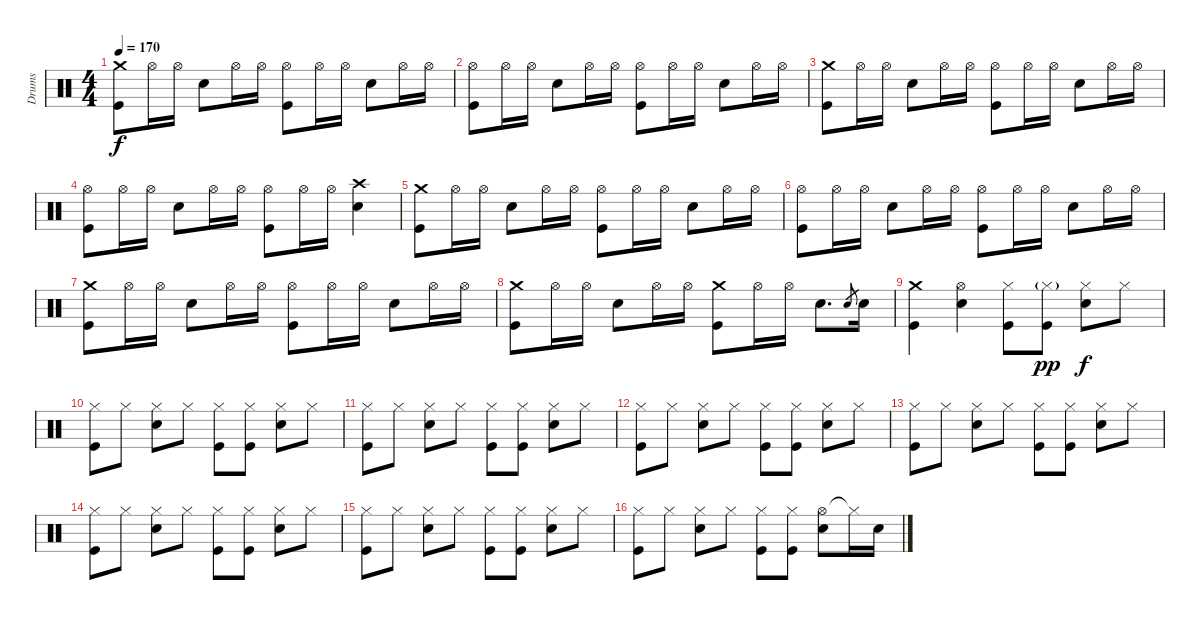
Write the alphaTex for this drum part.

\track ("Drums" "Drums") {instrument percussion}
\staff {score}
\articulation defaults
\ts (4 4)
\tempo 170
\clef neutral
\ks c
("Crash medium (hit)" "Kick (hit)").8{dy f} "Hi-Hat (open)".16 "Hi-Hat (open)".16 "Snare (hit) 2".8 "Hi-Hat (open)".16 "Hi-Hat (open)".16 ("Hi-Hat (open)" "Kick (hit)").8 "Hi-Hat (open)".16 "Hi-Hat (open)".16 "Snare (hit) 2".8 "Hi-Hat (open)".16 "Hi-Hat (open)".16 |
("Hi-Hat (open)" "Kick (hit)").8 "Hi-Hat (open)".16 "Hi-Hat (open)".16 "Snare (hit) 2".8 "Hi-Hat (open)".16 "Hi-Hat (open)".16 ("Hi-Hat (open)" "Kick (hit)").8 "Hi-Hat (open)".16 "Hi-Hat (open)".16 "Snare (hit) 2".8 "Hi-Hat (open)".16 "Hi-Hat (open)".16 |
("Crash medium (hit)" "Kick (hit)").8 "Hi-Hat (open)".16 "Hi-Hat (open)".16 "Snare (hit) 2".8 "Hi-Hat (open)".16 "Hi-Hat (open)".16 ("Hi-Hat (open)" "Kick (hit)").8 "Hi-Hat (open)".16 "Hi-Hat (open)".16 "Snare (hit) 2".8 "Hi-Hat (open)".16 "Hi-Hat (open)".16 |
("Hi-Hat (open)" "Kick (hit)").8 "Hi-Hat (open)".16 "Hi-Hat (open)".16 "Snare (hit) 2".8 "Hi-Hat (open)".16 "Hi-Hat (open)".16 ("Hi-Hat (open)" "Kick (hit)").8 "Hi-Hat (open)".16 "Hi-Hat (open)".16 ("Crash high (hit)" "Snare (hit) 2").4 |
("Crash medium (hit)" "Kick (hit)").8 "Hi-Hat (open)".16 "Hi-Hat (open)".16 "Snare (hit) 2".8 "Hi-Hat (open)".16 "Hi-Hat (open)".16 ("Hi-Hat (open)" "Kick (hit)").8 "Hi-Hat (open)".16 "Hi-Hat (open)".16 "Snare (hit) 2".8 "Hi-Hat (open)".16 "Hi-Hat (open)".16 |
("Hi-Hat (open)" "Kick (hit)").8 "Hi-Hat (open)".16 "Hi-Hat (open)".16 "Snare (hit) 2".8 "Hi-Hat (open)".16 "Hi-Hat (open)".16 ("Hi-Hat (open)" "Kick (hit)").8 "Hi-Hat (open)".16 "Hi-Hat (open)".16 "Snare (hit) 2".8 "Hi-Hat (open)".16 "Hi-Hat (open)".16 |
("Crash medium (hit)" "Kick (hit)").8 "Hi-Hat (open)".16 "Hi-Hat (open)".16 "Snare (hit) 2".8 "Hi-Hat (open)".16 "Hi-Hat (open)".16 ("Hi-Hat (open)" "Kick (hit)").8 "Hi-Hat (open)".16 "Hi-Hat (open)".16 "Snare (hit) 2".8 "Hi-Hat (open)".16 "Hi-Hat (open)".16 |
("Crash medium (hit)" "Kick (hit)").8 "Hi-Hat (open)".16 "Hi-Hat (open)".16 "Snare (hit) 2".8 "Hi-Hat (open)".16 "Hi-Hat (open)".16 ("Crash medium (hit)" "Kick (hit)").8 "Hi-Hat (open)".16 "Hi-Hat (open)".16 "Snare (hit) 2".8{d} "Snare (hit) 2".8{gr} "Snare (hit) 2".16 |
("Crash medium (hit)" "Kick (hit)").4 ("Hi-Hat (open)" "Snare (hit) 2").4 ("Hi-Hat (closed)" "Kick (hit)").8 ("Hi-Hat (closed)"{g} "Kick (hit)").8{dy pp} ("Hi-Hat (closed)" "Snare (hit) 2").8{dy f} "Hi-Hat (closed)".8 |
("Hi-Hat (closed)" "Kick (hit)").8 "Hi-Hat (closed)".8 ("Hi-Hat (closed)" "Snare (hit) 2").8 "Hi-Hat (closed)".8 ("Hi-Hat (closed)" "Kick (hit)").8 ("Hi-Hat (closed)" "Kick (hit)").8 ("Hi-Hat (closed)" "Snare (hit) 2").8 "Hi-Hat (closed)".8 |
("Hi-Hat (closed)" "Kick (hit)").8 "Hi-Hat (closed)".8 ("Hi-Hat (closed)" "Snare (hit) 2").8 "Hi-Hat (closed)".8 ("Hi-Hat (closed)" "Kick (hit)").8 ("Hi-Hat (closed)" "Kick (hit)").8 ("Hi-Hat (closed)" "Snare (hit) 2").8 "Hi-Hat (closed)".8 |
("Hi-Hat (closed)" "Kick (hit)").8 "Hi-Hat (closed)".8 ("Hi-Hat (closed)" "Snare (hit) 2").8 "Hi-Hat (closed)".8 ("Hi-Hat (closed)" "Kick (hit)").8 ("Hi-Hat (closed)" "Kick (hit)").8 ("Hi-Hat (closed)" "Snare (hit) 2").8 "Hi-Hat (closed)".8 |
("Hi-Hat (closed)" "Kick (hit)").8 "Hi-Hat (closed)".8 ("Hi-Hat (closed)" "Snare (hit) 2").8 "Hi-Hat (closed)".8 ("Hi-Hat (closed)" "Kick (hit)").8 ("Hi-Hat (closed)" "Kick (hit)").8 ("Hi-Hat (closed)" "Snare (hit) 2").8 "Hi-Hat (closed)".8 |
("Hi-Hat (closed)" "Kick (hit)").8 "Hi-Hat (closed)".8 ("Hi-Hat (closed)" "Snare (hit) 2").8 "Hi-Hat (closed)".8 ("Hi-Hat (closed)" "Kick (hit)").8 ("Hi-Hat (closed)" "Kick (hit)").8 ("Hi-Hat (closed)" "Snare (hit) 2").8 "Hi-Hat (closed)".8 |
("Hi-Hat (closed)" "Kick (hit)").8 "Hi-Hat (closed)".8 ("Hi-Hat (closed)" "Snare (hit) 2").8 "Hi-Hat (closed)".8 ("Hi-Hat (closed)" "Kick (hit)").8 ("Hi-Hat (closed)" "Kick (hit)").8 ("Hi-Hat (closed)" "Snare (hit) 2").8 "Hi-Hat (closed)".8 |
("Hi-Hat (closed)" "Kick (hit)").8 "Hi-Hat (closed)".8 ("Hi-Hat (closed)" "Snare (hit) 2").8 "Hi-Hat (closed)".8 ("Hi-Hat (closed)" "Kick (hit)").8 ("Hi-Hat (closed)" "Kick (hit)").8 ("Hi-Hat (open)" "Snare (hit) 2").8 "Hi-Hat (closed)"{t}.16 "Snare (hit) 2".16
